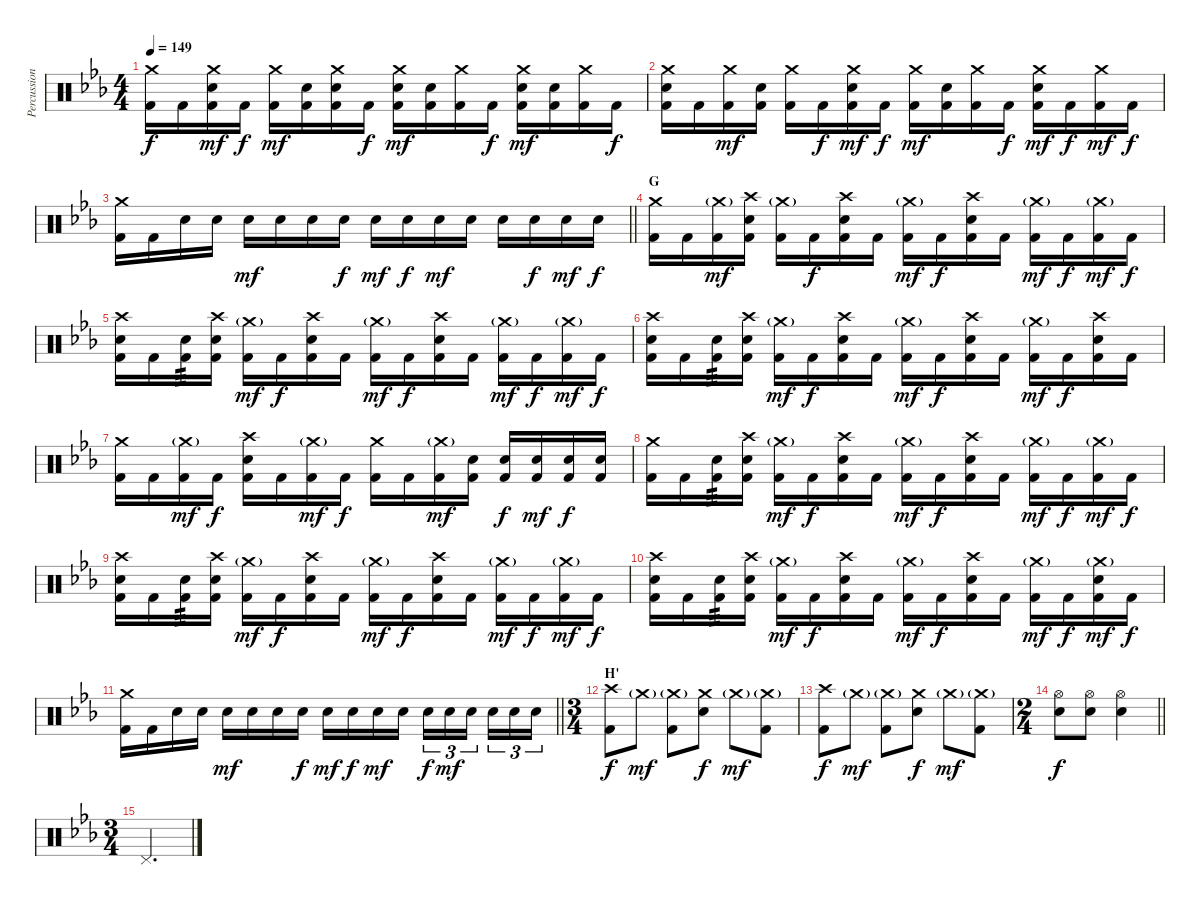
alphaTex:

\track ("Percussion" "Percussion") {instrument percussion}
\staff {score}
\articulation defaults
\ts (4 4)
\tempo 149
\clef neutral
\ks cminor
("Crash medium (hit)" "Kick (hit) 2").16{dy f} "Kick (hit) 2".16 ("Crash medium (hit)" "Snare (hit) 2" "Kick (hit) 2").16{dy mf} "Kick (hit) 2".16{dy f} ("Crash medium (hit)" "Kick (hit) 2").16{dy mf} ("Snare (hit) 2" "Kick (hit) 2").16 ("Crash medium (hit)" "Snare (hit) 2" "Kick (hit) 2").16 "Kick (hit) 2".16{dy f} ("Crash medium (hit)" "Snare (hit) 2" "Kick (hit) 2").16{dy mf} ("Snare (hit) 2" "Kick (hit) 2").16 ("Crash medium (hit)" "Kick (hit) 2").16 "Kick (hit) 2".16{dy f} ("Crash medium (hit)" "Snare (hit) 2" "Kick (hit) 2").16{dy mf} ("Snare (hit) 2" "Kick (hit) 2").16 ("Crash medium (hit)" "Kick (hit) 2").16 "Kick (hit) 2".16{dy f} |
("Crash medium (hit)" "Snare (hit) 2" "Kick (hit) 2").16 "Kick (hit) 2".16 ("Crash medium (hit)" "Kick (hit) 2").16{dy mf} ("Snare (hit) 2" "Kick (hit) 2").16 ("Crash medium (hit)" "Kick (hit) 2").16 "Kick (hit) 2".16{dy f} ("Crash medium (hit)" "Snare (hit) 2" "Kick (hit) 2").16{dy mf} "Kick (hit) 2".16{dy f} ("Crash medium (hit)" "Kick (hit) 2").16{dy mf} ("Snare (hit) 2" "Kick (hit) 2").16 ("Crash medium (hit)" "Kick (hit) 2").16 "Kick (hit) 2".16{dy f} ("Crash medium (hit)" "Snare (hit) 2" "Kick (hit) 2").16{dy mf} "Kick (hit) 2".16{dy f} ("Crash medium (hit)" "Kick (hit) 2").16{dy mf} "Kick (hit) 2".16{dy f} |
\barLineRight lightlight
("Crash medium (hit)" "Kick (hit) 2").16 "Kick (hit) 2".16 "Snare (hit) 2".16 "Snare (hit) 2".16 "Snare (hit) 2".16{dy mf} "Snare (hit) 2".16 "Snare (hit) 2".16 "Snare (hit) 2".16{dy f} "Snare (hit) 2".16{dy mf} "Snare (hit) 2".16{dy f} "Snare (hit) 2".16{dy mf} "Snare (hit) 2".16 "Snare (hit) 2".16 "Snare (hit) 2".16{dy f} "Snare (hit) 2".16{dy mf} "Snare (hit) 2".16{dy f} |
\section ("" "G")
("Crash medium (hit)" "Kick (hit) 2").16 "Kick (hit) 2".16 ("Crash medium (hit)"{g} "Kick (hit) 2").16{dy mf} ("Crash high (hit)" "Snare (hit) 2" "Kick (hit) 2").16 ("Crash medium (hit)"{g} "Kick (hit) 2").16 "Kick (hit) 2".16{dy f} ("Crash high (hit)" "Snare (hit) 2" "Kick (hit) 2").16 "Kick (hit) 2".16 ("Crash medium (hit)"{g} "Kick (hit) 2").16{dy mf} "Kick (hit) 2".16{dy f} ("Crash high (hit)" "Snare (hit) 2" "Kick (hit) 2").16 "Kick (hit) 2".16 ("Crash medium (hit)"{g} "Kick (hit) 2").16{dy mf} "Kick (hit) 2".16{dy f} ("Crash medium (hit)"{g} "Kick (hit) 2").16{dy mf} "Kick (hit) 2".16{dy f} |
("Crash high (hit)" "Snare (hit) 2" "Kick (hit) 2").16 "Kick (hit) 2".16 ("Snare (hit) 2" "Kick (hit) 2").16{tp 3} ("Crash high (hit)" "Snare (hit) 2" "Kick (hit) 2").16 ("Crash medium (hit)"{g} "Kick (hit) 2").16{dy mf} "Kick (hit) 2".16{dy f} ("Crash high (hit)" "Snare (hit) 2" "Kick (hit) 2").16 "Kick (hit) 2".16 ("Crash medium (hit)"{g} "Kick (hit) 2").16{dy mf} "Kick (hit) 2".16{dy f} ("Crash high (hit)" "Snare (hit) 2" "Kick (hit) 2").16 "Kick (hit) 2".16 ("Crash medium (hit)"{g} "Kick (hit) 2").16{dy mf} "Kick (hit) 2".16{dy f} ("Crash medium (hit)"{g} "Kick (hit) 2").16{dy mf} "Kick (hit) 2".16{dy f} |
("Crash high (hit)" "Snare (hit) 2" "Kick (hit) 2").16 "Kick (hit) 2".16 ("Snare (hit) 2" "Kick (hit) 2").16{tp 3} ("Crash high (hit)" "Snare (hit) 2" "Kick (hit) 2").16 ("Crash medium (hit)"{g} "Kick (hit) 2").16{dy mf} "Kick (hit) 2".16{dy f} ("Crash high (hit)" "Snare (hit) 2" "Kick (hit) 2").16 "Kick (hit) 2".16 ("Crash medium (hit)"{g} "Kick (hit) 2").16{dy mf} "Kick (hit) 2".16{dy f} ("Crash high (hit)" "Snare (hit) 2" "Kick (hit) 2").16 "Kick (hit) 2".16 ("Crash medium (hit)"{g} "Kick (hit) 2").16{dy mf} "Kick (hit) 2".16{dy f} ("Crash high (hit)" "Snare (hit) 2" "Kick (hit) 2").16 "Kick (hit) 2".16 |
("Crash medium (hit)" "Kick (hit) 2").16 "Kick (hit) 2".16 ("Crash medium (hit)"{g} "Kick (hit) 2").16{dy mf} "Kick (hit) 2".16{dy f} ("Crash high (hit)" "Snare (hit) 2" "Kick (hit) 2").16 "Kick (hit) 2".16 ("Crash medium (hit)"{g} "Kick (hit) 2").16{dy mf} "Kick (hit) 2".16{dy f} ("Crash medium (hit)" "Kick (hit) 2").16 "Kick (hit) 2".16 ("Crash medium (hit)"{g} "Kick (hit) 2").16{dy mf} ("Snare (hit) 2" "Kick (hit) 2").16 ("Snare (hit) 2" "Kick (hit) 2").16{dy f} ("Snare (hit) 2" "Kick (hit) 2").16{dy mf} ("Snare (hit) 2" "Kick (hit) 2").16{dy f} ("Snare (hit) 2" "Kick (hit) 2").16 |
("Crash medium (hit)" "Kick (hit) 2").16 "Kick (hit) 2".16 ("Snare (hit) 2" "Kick (hit) 2").16{tp 3} ("Crash high (hit)" "Snare (hit) 2" "Kick (hit) 2").16 ("Crash medium (hit)"{g} "Kick (hit) 2").16{dy mf} "Kick (hit) 2".16{dy f} ("Crash high (hit)" "Snare (hit) 2" "Kick (hit) 2").16 "Kick (hit) 2".16 ("Crash medium (hit)"{g} "Kick (hit) 2").16{dy mf} "Kick (hit) 2".16{dy f} ("Crash high (hit)" "Snare (hit) 2" "Kick (hit) 2").16 "Kick (hit) 2".16 ("Crash medium (hit)"{g} "Kick (hit) 2").16{dy mf} "Kick (hit) 2".16{dy f} ("Crash medium (hit)"{g} "Kick (hit) 2").16{dy mf} "Kick (hit) 2".16{dy f} |
("Crash high (hit)" "Snare (hit) 2" "Kick (hit) 2").16 "Kick (hit) 2".16 ("Snare (hit) 2" "Kick (hit) 2").16{tp 3} ("Crash high (hit)" "Snare (hit) 2" "Kick (hit) 2").16 ("Crash medium (hit)"{g} "Kick (hit) 2").16{dy mf} "Kick (hit) 2".16{dy f} ("Crash high (hit)" "Snare (hit) 2" "Kick (hit) 2").16 "Kick (hit) 2".16 ("Crash medium (hit)"{g} "Kick (hit) 2").16{dy mf} "Kick (hit) 2".16{dy f} ("Crash high (hit)" "Snare (hit) 2" "Kick (hit) 2").16 "Kick (hit) 2".16 ("Crash medium (hit)"{g} "Kick (hit) 2").16{dy mf} "Kick (hit) 2".16{dy f} ("Crash medium (hit)"{g} "Kick (hit) 2").16{dy mf} "Kick (hit) 2".16{dy f} |
("Crash high (hit)" "Snare (hit) 2" "Kick (hit) 2").16 "Kick (hit) 2".16 ("Snare (hit) 2" "Kick (hit) 2").16{tp 3} ("Crash high (hit)" "Snare (hit) 2" "Kick (hit) 2").16 ("Crash medium (hit)"{g} "Kick (hit) 2").16{dy mf} "Kick (hit) 2".16{dy f} ("Crash high (hit)" "Snare (hit) 2" "Kick (hit) 2").16 "Kick (hit) 2".16 ("Crash medium (hit)"{g} "Kick (hit) 2").16{dy mf} "Kick (hit) 2".16{dy f} ("Crash high (hit)" "Snare (hit) 2" "Kick (hit) 2").16 "Kick (hit) 2".16 ("Crash medium (hit)"{g} "Kick (hit) 2").16{dy mf} "Kick (hit) 2".16{dy f} ("Crash medium (hit)"{g} "Snare (hit) 2" "Kick (hit) 2").16{dy mf} "Kick (hit) 2".16{dy f} |
\barLineRight lightlight
("Crash medium (hit)" "Kick (hit) 2").16 "Kick (hit) 2".16 "Snare (hit) 2".16 "Snare (hit) 2".16 "Snare (hit) 2".16{dy mf} "Snare (hit) 2".16 "Snare (hit) 2".16 "Snare (hit) 2".16{dy f} "Snare (hit) 2".16{dy mf} "Snare (hit) 2".16{dy f} "Snare (hit) 2".16{dy mf} "Snare (hit) 2".16 "Snare (hit) 2".16{tu (3 2) dy f} "Snare (hit) 2".16{tu (3 2) dy mf} "Snare (hit) 2".16{tu (3 2) beam splitsecondary} "Snare (hit) 2".16{tu (3 2)} "Snare (hit) 2".16{tu (3 2)} "Snare (hit) 2".16{tu (3 2)} |
\ts (3 4)
\section ("" "H'")
("Crash high (hit)" "Kick (hit) 2").8{dy f} "Crash medium (hit)"{g}.8{dy mf} ("Crash medium (hit)"{g} "Kick (hit) 2").8 ("Crash medium (hit)" "Snare (hit) 2").8{dy f} "Crash medium (hit)"{g}.8{dy mf} ("Crash medium (hit)"{g} "Kick (hit) 2").8 |
("Crash high (hit)" "Kick (hit) 2").8{dy f} "Crash medium (hit)"{g}.8{dy mf} ("Crash medium (hit)"{g} "Kick (hit) 2").8 ("Crash medium (hit)" "Snare (hit) 2").8{dy f} "Crash medium (hit)"{g}.8{dy mf} ("Crash medium (hit)"{g} "Kick (hit) 2").8 |
\ts (2 4)
\barLineRight lightlight
("Hi-Hat (open)" "Snare (hit) 2").8{dy f} ("Hi-Hat (open)" "Snare (hit) 2").8 ("Hi-Hat (open)" "Snare (hit) 2").4 |
\ts (3 4)
"Pedal Hi-Hat (hit)".2{d}
